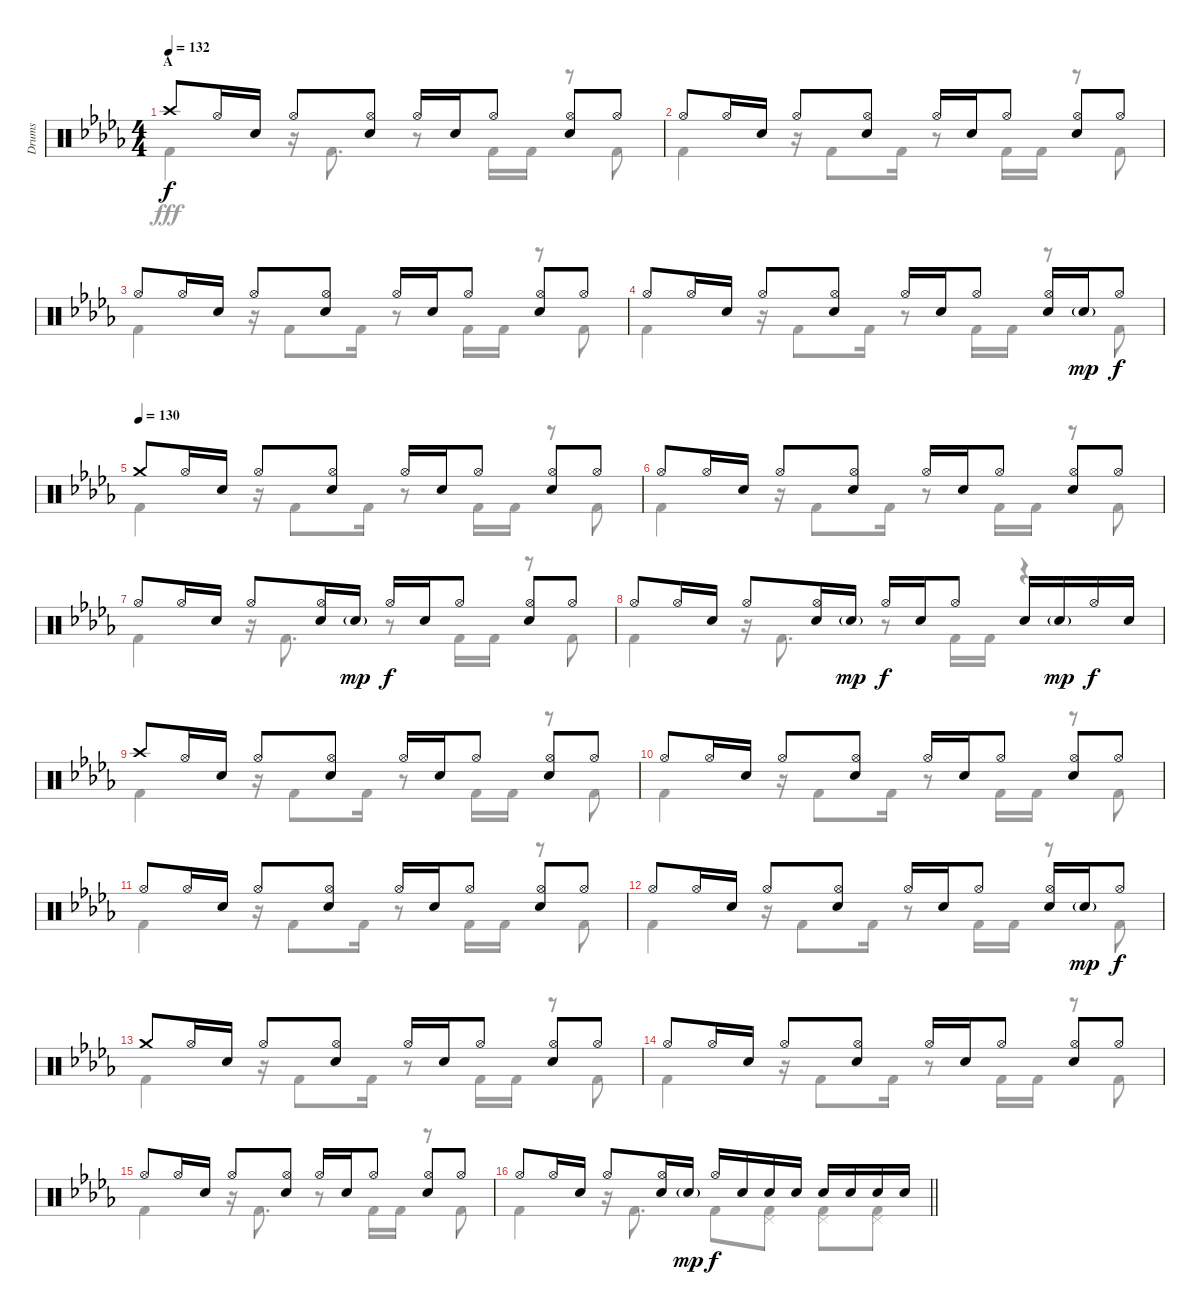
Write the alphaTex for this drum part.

\track ("Drums" "Drums") {instrument percussion}
\staff {score}
\articulation defaults
\voice
\ts (4 4)
\section ("" "A")
\tempo 132
\clef neutral
\ks db "Crash high (hit)".8{dy f} "Hi-Hat (open)".16 "Snare (hit) 2".16 "Hi-Hat (open)".8
("Hi-Hat (open)" "Snare (hit) 2").8 "Hi-Hat (open)".16 "Snare (hit) 2".16 "Hi-Hat (open)".8 ("Hi-Hat (open)" "Snare (hit) 2").8 "Hi-Hat (open)".8 |
"Hi-Hat (open)".8 "Hi-Hat (open)".16 "Snare (hit) 2".16 "Hi-Hat (open)".8 ("Hi-Hat (open)" "Snare (hit) 2").8 "Hi-Hat (open)".16 "Snare (hit) 2".16 "Hi-Hat (open)".8 ("Hi-Hat (open)" "Snare (hit) 2").8 "Hi-Hat (open)".8 |
"Hi-Hat (open)".8 "Hi-Hat (open)".16 "Snare (hit) 2".16 "Hi-Hat (open)".8 ("Hi-Hat (open)" "Snare (hit) 2").8 "Hi-Hat (open)".16 "Snare (hit) 2".16 "Hi-Hat (open)".8 ("Hi-Hat (open)" "Snare (hit) 2").8 "Hi-Hat (open)".8 |
"Hi-Hat (open)".8 "Hi-Hat (open)".16 "Snare (hit) 2".16 "Hi-Hat (open)".8 ("Hi-Hat (open)" "Snare (hit) 2").8 "Hi-Hat (open)".16 "Snare (hit) 2".16 "Hi-Hat (open)".8 ("Hi-Hat (open)" "Snare (hit) 2").16 "Snare (hit) 2"{g}.16{dy mp} "Hi-Hat (open)".8{dy f} |
\tempo (130)
"Crash medium (hit)".8 "Hi-Hat (open)".16 "Snare (hit) 2".16 "Hi-Hat (open)".8 ("Hi-Hat (open)" "Snare (hit) 2").8 "Hi-Hat (open)".16 "Snare (hit) 2".16 "Hi-Hat (open)".8 ("Hi-Hat (open)" "Snare (hit) 2").8 "Hi-Hat (open)".8 |
"Hi-Hat (open)".8 "Hi-Hat (open)".16 "Snare (hit) 2".16 "Hi-Hat (open)".8 ("Hi-Hat (open)" "Snare (hit) 2").8 "Hi-Hat (open)".16 "Snare (hit) 2".16 "Hi-Hat (open)".8 ("Hi-Hat (open)" "Snare (hit) 2").8 "Hi-Hat (open)".8 |
"Hi-Hat (open)".8 "Hi-Hat (open)".16 "Snare (hit) 2".16 "Hi-Hat (open)".8 ("Hi-Hat (open)" "Snare (hit) 2").16 "Snare (hit) 2"{g}.16{dy mp} "Hi-Hat (open)".16{dy f} "Snare (hit) 2".16 "Hi-Hat (open)".8 ("Hi-Hat (open)" "Snare (hit) 2").8 "Hi-Hat (open)".8 |
"Hi-Hat (open)".8 "Hi-Hat (open)".16 "Snare (hit) 2".16 "Hi-Hat (open)".8 ("Hi-Hat (open)" "Snare (hit) 2").16 "Snare (hit) 2"{g}.16{dy mp} "Hi-Hat (open)".16{dy f} "Snare (hit) 2".16 "Hi-Hat (open)".8 "Snare (hit) 2".16 "Snare (hit) 2"{g}.16{dy mp} "Hi-Hat (open)".16{dy f} "Snare (hit) 2".16 |
"Crash high (hit)".8 "Hi-Hat (open)".16 "Snare (hit) 2".16 "Hi-Hat (open)".8 ("Hi-Hat (open)" "Snare (hit) 2").8 "Hi-Hat (open)".16 "Snare (hit) 2".16 "Hi-Hat (open)".8 ("Hi-Hat (open)" "Snare (hit) 2").8 "Hi-Hat (open)".8 |
"Hi-Hat (open)".8 "Hi-Hat (open)".16 "Snare (hit) 2".16 "Hi-Hat (open)".8 ("Hi-Hat (open)" "Snare (hit) 2").8 "Hi-Hat (open)".16 "Snare (hit) 2".16 "Hi-Hat (open)".8 ("Hi-Hat (open)" "Snare (hit) 2").8 "Hi-Hat (open)".8 |
"Hi-Hat (open)".8 "Hi-Hat (open)".16 "Snare (hit) 2".16 "Hi-Hat (open)".8 ("Hi-Hat (open)" "Snare (hit) 2").8 "Hi-Hat (open)".16 "Snare (hit) 2".16 "Hi-Hat (open)".8 ("Hi-Hat (open)" "Snare (hit) 2").8 "Hi-Hat (open)".8 |
"Hi-Hat (open)".8 "Hi-Hat (open)".16 "Snare (hit) 2".16 "Hi-Hat (open)".8 ("Hi-Hat (open)" "Snare (hit) 2").8 "Hi-Hat (open)".16 "Snare (hit) 2".16 "Hi-Hat (open)".8 ("Hi-Hat (open)" "Snare (hit) 2").16 "Snare (hit) 2"{g}.16{dy mp} "Hi-Hat (open)".8{dy f} |
"Crash medium (hit)".8 "Hi-Hat (open)".16 "Snare (hit) 2".16 "Hi-Hat (open)".8 ("Hi-Hat (open)" "Snare (hit) 2").8 "Hi-Hat (open)".16 "Snare (hit) 2".16 "Hi-Hat (open)".8 ("Hi-Hat (open)" "Snare (hit) 2").8 "Hi-Hat (open)".8 |
"Hi-Hat (open)".8 "Hi-Hat (open)".16 "Snare (hit) 2".16 "Hi-Hat (open)".8 ("Hi-Hat (open)" "Snare (hit) 2").8 "Hi-Hat (open)".16 "Snare (hit) 2".16 "Hi-Hat (open)".8 ("Hi-Hat (open)" "Snare (hit) 2").8 "Hi-Hat (open)".8 |
"Hi-Hat (open)".8 "Hi-Hat (open)".16 "Snare (hit) 2".16 "Hi-Hat (open)".8 ("Hi-Hat (open)" "Snare (hit) 2").8 "Hi-Hat (open)".16 "Snare (hit) 2".16 "Hi-Hat (open)".8 ("Hi-Hat (open)" "Snare (hit) 2").8 "Hi-Hat (open)".8 |
\barLineRight lightlight "Hi-Hat (open)".8 "Hi-Hat (open)".16 "Snare (hit) 2".16 "Hi-Hat (open)".8
("Hi-Hat (open)" "Snare (hit) 2").16 "Snare (hit) 2"{g}.16{dy mp} "Hi-Hat (open)".16{dy f} "Snare (hit) 2".16 "Snare (hit) 2".16 "Snare (hit) 2".16 "Snare (hit) 2".16 "Snare (hit) 2".16 "Snare (hit) 2".16 "Snare (hit) 2".16
\voice
\clef neutral
\ottava regular
\simile none
\ks db "Kick (hit) 2".4{dy fff}
r.16 "Kick (hit) 2".8{d} r.8 "Kick (hit) 2".16 "Kick (hit) 2".16 r.8 "Kick (hit) 2".8 |
"Kick (hit) 2".4 r.16 "Kick (hit) 2".8 "Kick (hit) 2".16 r.8 "Kick (hit) 2".16 "Kick (hit) 2".16 r.8 "Kick (hit) 2".8 |
"Kick (hit) 2".4 r.16 "Kick (hit) 2".8 "Kick (hit) 2".16 r.8 "Kick (hit) 2".16 "Kick (hit) 2".16 r.8 "Kick (hit) 2".8 |
"Kick (hit) 2".4 r.16 "Kick (hit) 2".8 "Kick (hit) 2".16 r.8 "Kick (hit) 2".16 "Kick (hit) 2".16 r.8 "Kick (hit) 2".8 |
"Kick (hit) 2".4 r.16 "Kick (hit) 2".8 "Kick (hit) 2".16 r.8 "Kick (hit) 2".16 "Kick (hit) 2".16 r.8 "Kick (hit) 2".8 |
"Kick (hit) 2".4 r.16 "Kick (hit) 2".8 "Kick (hit) 2".16 r.8 "Kick (hit) 2".16 "Kick (hit) 2".16 r.8 "Kick (hit) 2".8 |
"Kick (hit) 2".4 r.16 "Kick (hit) 2".8{d} r.8 "Kick (hit) 2".16 "Kick (hit) 2".16 r.8 "Kick (hit) 2".8 |
"Kick (hit) 2".4 r.16 "Kick (hit) 2".8{d} r.8 "Kick (hit) 2".16 "Kick (hit) 2".16 r.4 |
"Kick (hit) 2".4 r.16 "Kick (hit) 2".8 "Kick (hit) 2".16 r.8 "Kick (hit) 2".16 "Kick (hit) 2".16 r.8 "Kick (hit) 2".8 |
"Kick (hit) 2".4 r.16 "Kick (hit) 2".8 "Kick (hit) 2".16 r.8 "Kick (hit) 2".16 "Kick (hit) 2".16 r.8 "Kick (hit) 2".8 |
"Kick (hit) 2".4 r.16 "Kick (hit) 2".8 "Kick (hit) 2".16 r.8 "Kick (hit) 2".16 "Kick (hit) 2".16 r.8 "Kick (hit) 2".8 |
"Kick (hit) 2".4 r.16 "Kick (hit) 2".8 "Kick (hit) 2".16 r.8 "Kick (hit) 2".16 "Kick (hit) 2".16 r.8 "Kick (hit) 2".8 |
"Kick (hit) 2".4 r.16 "Kick (hit) 2".8 "Kick (hit) 2".16 r.8 "Kick (hit) 2".16 "Kick (hit) 2".16 r.8 "Kick (hit) 2".8 |
"Kick (hit) 2".4 r.16 "Kick (hit) 2".8 "Kick (hit) 2".16 r.8 "Kick (hit) 2".16 "Kick (hit) 2".16 r.8 "Kick (hit) 2".8 |
"Kick (hit) 2".4 r.16 "Kick (hit) 2".8{d} r.8 "Kick (hit) 2".16 "Kick (hit) 2".16 r.8 "Kick (hit) 2".8 |
\barLineRight lightlight "Kick (hit) 2".4
r.16 "Kick (hit) 2".8{d} "Kick (hit) 2".8 ("Pedal Hi-Hat (hit)" "Kick (hit) 2").8 ("Pedal Hi-Hat (hit)" "Kick (hit) 2").8 ("Pedal Hi-Hat (hit)" "Kick (hit) 2").8
